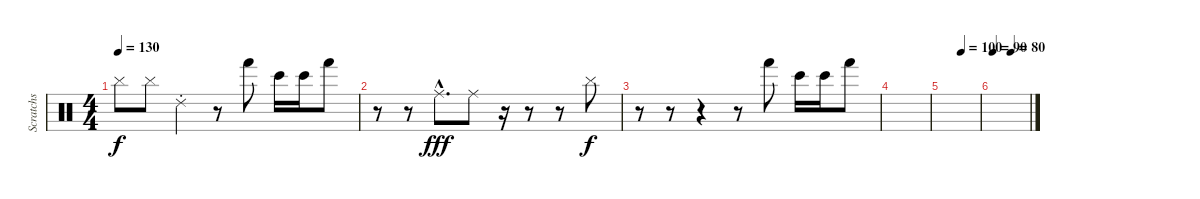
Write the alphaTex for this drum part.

\track ("Scratchs" "Scratchs") {instrument percussion}
\staff {score}
\articulation defaults
\ts (4 4)
\tempo 130
\clef neutral
\ks c "Cymbal (hit)".8{dy f} "Cymbal (hit)".8 "Ride (choke) 2".4
r.8 "Hand (hit)".8 "Bongo High (hit)".16 "Bongo High (hit)".16 "Hand (hit)".8 |
r.8 r.8 "Ride (middle)"{hac}.8{d dy fff} "Ride (middle)".8 r.16 r.8 r.8 "Cymbal (hit)".8{dy f} |
r.8 r.8 r.4 r.8 "Hand (hit)".8 "Bongo High (hit)".16 "Bongo High (hit)".16 "Hand (hit)".8 |
|
\tempo (100 0.5)
|
\tempo 90
\tempo (80 0.5)
